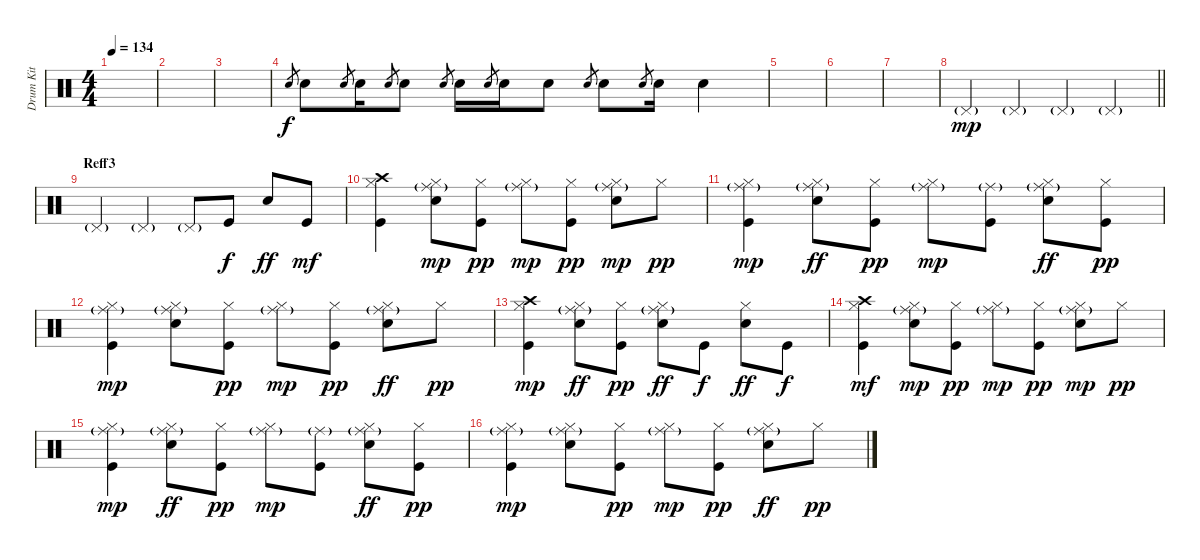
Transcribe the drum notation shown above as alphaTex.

\track ("Drum Kit" "Drum Kit") {instrument percussion}
\staff {score}
\articulation defaults
\ts (4 4)
\tempo 134
\clef neutral
\ks c
|
|
|
"Hand Clap (hit)".8{gr dy f} "Hand Clap (hit)".8 "Hand Clap (hit)".8{gr} "Hand Clap (hit)".16 "Hand Clap (hit)".8{gr} "Hand Clap (hit)".8 "Hand Clap (hit)".8{gr} "Hand Clap (hit)".16 "Hand Clap (hit)".8{gr} "Hand Clap (hit)".16 "Hand Clap (hit)".8 "Hand Clap (hit)".8{gr} "Hand Clap (hit)".8 "Hand Clap (hit)".8{gr} "Hand Clap (hit)".16 "Hand Clap (hit)".4 |
|
|
|
\barLineRight lightlight "Pedal Hi-Hat (hit)"{g}.4{dy mp} "Pedal Hi-Hat (hit)"{g}.4 "Pedal Hi-Hat (hit)"{g}.4 "Pedal Hi-Hat (hit)"{g}.4
|
\section ("" "Reff3")
"Pedal Hi-Hat (hit)"{g}.4 "Pedal Hi-Hat (hit)"{g}.4 "Pedal Hi-Hat (hit)"{g}.8 "Kick (hit)".8{dy f} "Electric Snare (hit)".8{dy ff} "Kick (hit)".8{dy mf} |
("Kick (hit)" "Hi-Hat (closed)" "Crash high (hit)").4 ("Hi-Hat (closed)" "Electric Snare (hit)" "Ride (middle)"{g}).8{dy mp} ("Kick (hit)" "Hi-Hat (closed)").8{dy pp} ("Hi-Hat (closed)" "Ride (middle)"{g}).8{dy mp} ("Hi-Hat (closed)" "Kick (hit)").8{dy pp} ("Hi-Hat (closed)" "Electric Snare (hit)" "Ride (middle)"{g}).8{dy mp} "Hi-Hat (closed)".8{dy pp} |
("Ride (middle)"{g} "Hi-Hat (closed)" "Kick (hit)").4{dy mp} ("Ride (middle)"{g} "Hi-Hat (closed)" "Electric Snare (hit)").8{dy ff} ("Hi-Hat (closed)" "Kick (hit)").8{dy pp} ("Ride (middle)"{g} "Hi-Hat (closed)").8{dy mp} ("Kick (hit)" "Ride (middle)"{g}).8 ("Ride (middle)"{g} "Hi-Hat (closed)" "Electric Snare (hit)").8{dy ff} ("Hi-Hat (closed)" "Kick (hit)").8{dy pp} |
("Ride (middle)"{g} "Kick (hit)" "Hi-Hat (closed)").4{dy mp} ("Hi-Hat (closed)" "Electric Snare (hit)" "Ride (middle)"{g}).8 ("Kick (hit)" "Hi-Hat (closed)").8{dy pp} ("Hi-Hat (closed)" "Ride (middle)"{g}).8{dy mp} ("Hi-Hat (closed)" "Kick (hit)").8{dy pp} ("Ride (middle)"{g} "Hi-Hat (closed)" "Electric Snare (hit)").8{dy ff} "Hi-Hat (closed)".8{dy pp} |
("Crash high (hit)" "Hi-Hat (closed)" "Kick (hit)").4{dy mp} ("Ride (middle)"{g} "Hi-Hat (closed)" "Electric Snare (hit)").8{dy ff} ("Hi-Hat (closed)" "Kick (hit)").8{dy pp} ("Ride (middle)"{g} "Hi-Hat (closed)" "Electric Snare (hit)").8{dy ff} "Kick (hit)".8{dy f} ("Hi-Hat (closed)" "Electric Snare (hit)").8{dy ff} "Kick (hit)".8{dy f} |
("Kick (hit)" "Hi-Hat (closed)" "Crash high (hit)").4{dy mf} ("Hi-Hat (closed)" "Electric Snare (hit)" "Ride (middle)"{g}).8{dy mp} ("Kick (hit)" "Hi-Hat (closed)").8{dy pp} ("Hi-Hat (closed)" "Ride (middle)"{g}).8{dy mp} ("Hi-Hat (closed)" "Kick (hit)").8{dy pp} ("Hi-Hat (closed)" "Electric Snare (hit)" "Ride (middle)"{g}).8{dy mp} "Hi-Hat (closed)".8{dy pp} |
("Ride (middle)"{g} "Hi-Hat (closed)" "Kick (hit)").4{dy mp} ("Ride (middle)"{g} "Hi-Hat (closed)" "Electric Snare (hit)").8{dy ff} ("Hi-Hat (closed)" "Kick (hit)").8{dy pp} ("Ride (middle)"{g} "Hi-Hat (closed)").8{dy mp} ("Kick (hit)" "Ride (middle)"{g}).8 ("Ride (middle)"{g} "Hi-Hat (closed)" "Electric Snare (hit)").8{dy ff} ("Hi-Hat (closed)" "Kick (hit)").8{dy pp} |
("Ride (middle)"{g} "Kick (hit)" "Hi-Hat (closed)").4{dy mp} ("Hi-Hat (closed)" "Electric Snare (hit)" "Ride (middle)"{g}).8 ("Kick (hit)" "Hi-Hat (closed)").8{dy pp} ("Hi-Hat (closed)" "Ride (middle)"{g}).8{dy mp} ("Hi-Hat (closed)" "Kick (hit)").8{dy pp} ("Ride (middle)"{g} "Hi-Hat (closed)" "Electric Snare (hit)").8{dy ff} "Hi-Hat (closed)".8{dy pp}
